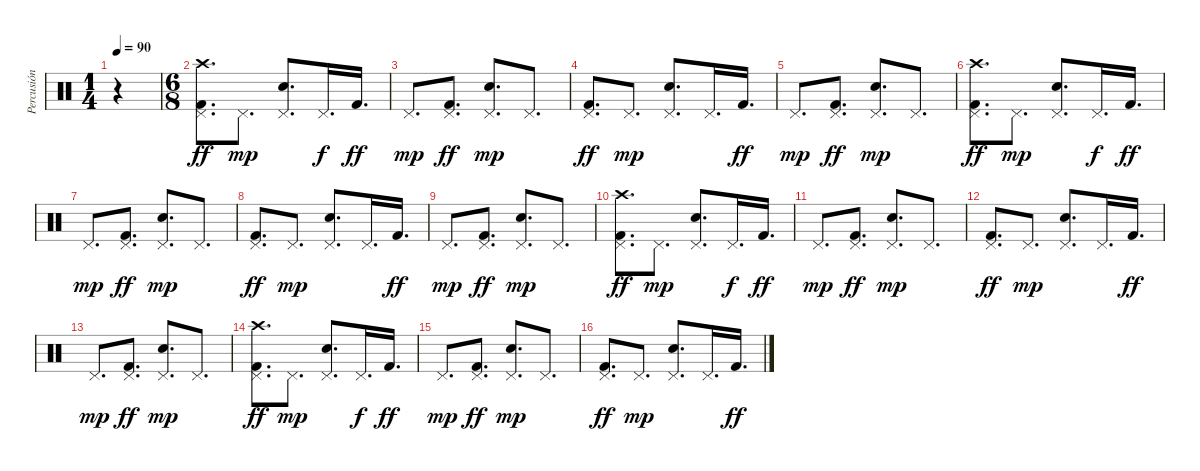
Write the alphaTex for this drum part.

\track ("Percusión" "Percusión") {instrument percussion}
\staff {score}
\articulation defaults
\ts (1 4)
\tempo 90
\clef neutral
\ks c
r.4{dy ff} |
\ts (6 8)
("Crash high (hit)" "Pedal Hi-Hat (hit)" "Kick (hit) 2").8{d} "Pedal Hi-Hat (hit)".8{d dy mp} ("Pedal Hi-Hat (hit)" "Electric Snare (hit)").8{d} "Pedal Hi-Hat (hit)".16{d dy f} "Kick (hit) 2".16{d dy ff} |
"Pedal Hi-Hat (hit)".8{d dy mp} ("Pedal Hi-Hat (hit)" "Kick (hit) 2").8{d dy ff} ("Pedal Hi-Hat (hit)" "Electric Snare (hit)").8{d dy mp} "Pedal Hi-Hat (hit)".8{d} |
("Pedal Hi-Hat (hit)" "Kick (hit) 2").8{d dy ff} "Pedal Hi-Hat (hit)".8{d dy mp} ("Pedal Hi-Hat (hit)" "Electric Snare (hit)").8{d} "Pedal Hi-Hat (hit)".16{d} "Kick (hit) 2".16{d dy ff} |
"Pedal Hi-Hat (hit)".8{d dy mp} ("Pedal Hi-Hat (hit)" "Kick (hit) 2").8{d dy ff} ("Pedal Hi-Hat (hit)" "Electric Snare (hit)").8{d dy mp} "Pedal Hi-Hat (hit)".8{d} |
("Crash high (hit)" "Pedal Hi-Hat (hit)" "Kick (hit) 2").8{d dy ff} "Pedal Hi-Hat (hit)".8{d dy mp} ("Pedal Hi-Hat (hit)" "Electric Snare (hit)").8{d} "Pedal Hi-Hat (hit)".16{d dy f} "Kick (hit) 2".16{d dy ff} |
"Pedal Hi-Hat (hit)".8{d dy mp} ("Pedal Hi-Hat (hit)" "Kick (hit) 2").8{d dy ff} ("Pedal Hi-Hat (hit)" "Electric Snare (hit)").8{d dy mp} "Pedal Hi-Hat (hit)".8{d} |
("Pedal Hi-Hat (hit)" "Kick (hit) 2").8{d dy ff} "Pedal Hi-Hat (hit)".8{d dy mp} ("Pedal Hi-Hat (hit)" "Electric Snare (hit)").8{d} "Pedal Hi-Hat (hit)".16{d} "Kick (hit) 2".16{d dy ff} |
"Pedal Hi-Hat (hit)".8{d dy mp} ("Pedal Hi-Hat (hit)" "Kick (hit) 2").8{d dy ff} ("Pedal Hi-Hat (hit)" "Electric Snare (hit)").8{d dy mp} "Pedal Hi-Hat (hit)".8{d} |
("Crash high (hit)" "Pedal Hi-Hat (hit)" "Kick (hit) 2").8{d dy ff} "Pedal Hi-Hat (hit)".8{d dy mp} ("Pedal Hi-Hat (hit)" "Electric Snare (hit)").8{d} "Pedal Hi-Hat (hit)".16{d dy f} "Kick (hit) 2".16{d dy ff} |
"Pedal Hi-Hat (hit)".8{d dy mp} ("Pedal Hi-Hat (hit)" "Kick (hit) 2").8{d dy ff} ("Pedal Hi-Hat (hit)" "Electric Snare (hit)").8{d dy mp} "Pedal Hi-Hat (hit)".8{d} |
("Pedal Hi-Hat (hit)" "Kick (hit) 2").8{d dy ff} "Pedal Hi-Hat (hit)".8{d dy mp} ("Pedal Hi-Hat (hit)" "Electric Snare (hit)").8{d} "Pedal Hi-Hat (hit)".16{d} "Kick (hit) 2".16{d dy ff} |
"Pedal Hi-Hat (hit)".8{d dy mp} ("Pedal Hi-Hat (hit)" "Kick (hit) 2").8{d dy ff} ("Pedal Hi-Hat (hit)" "Electric Snare (hit)").8{d dy mp} "Pedal Hi-Hat (hit)".8{d} |
("Crash high (hit)" "Pedal Hi-Hat (hit)" "Kick (hit) 2").8{d dy ff} "Pedal Hi-Hat (hit)".8{d dy mp} ("Pedal Hi-Hat (hit)" "Electric Snare (hit)").8{d} "Pedal Hi-Hat (hit)".16{d dy f} "Kick (hit) 2".16{d dy ff} |
"Pedal Hi-Hat (hit)".8{d dy mp} ("Pedal Hi-Hat (hit)" "Kick (hit) 2").8{d dy ff} ("Pedal Hi-Hat (hit)" "Electric Snare (hit)").8{d dy mp} "Pedal Hi-Hat (hit)".8{d} |
("Pedal Hi-Hat (hit)" "Kick (hit) 2").8{d dy ff} "Pedal Hi-Hat (hit)".8{d dy mp} ("Pedal Hi-Hat (hit)" "Electric Snare (hit)").8{d} "Pedal Hi-Hat (hit)".16{d} "Kick (hit) 2".16{d dy ff}
